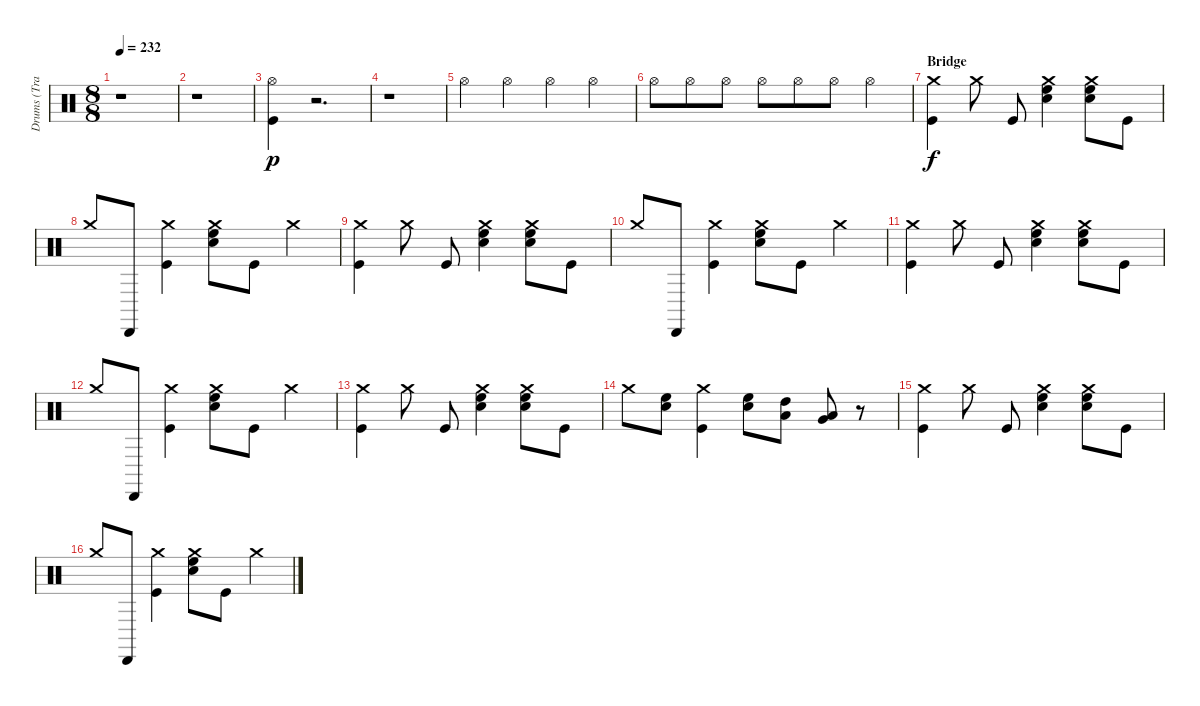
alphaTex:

\track ("Drums (Travis)" "Drums (Tra") {instrument percussion}
\staff {score}
\articulation defaults
\ts (8 8)
\tempo 232
\clef neutral
\ks c
r.1{dy p} |
r.1 |
("Hi-Hat (open)" "Kick (hit)").4 r.2{d} |
r.1 |
"Hi-Hat (open)".4 "Hi-Hat (open)".4 "Hi-Hat (open)".4 "Hi-Hat (open)".4 |
"Hi-Hat (open)".8 "Hi-Hat (open)".8 "Hi-Hat (open)".8 "Hi-Hat (open)".8 "Hi-Hat (open)".8 "Hi-Hat (open)".8 "Hi-Hat (open)".4 |
\section ("" "Bridge")
("Kick (hit)" "Crash medium (hit)").4{dy f} "Crash medium (hit)".8 "Kick (hit)".8 ("High Floor Tom (hit)" "Electric Snare (hit)" "Crash medium (hit)").4 ("Electric Snare (hit)" "High Floor Tom (hit)" "Crash medium (hit)").8 "Kick (hit)".8 |
"Crash medium (hit)".8 "Cabasa (hit)".8 ("Kick (hit)" "Crash medium (hit)").4 ("High Floor Tom (hit)" "Electric Snare (hit)" "Crash medium (hit)").8 "Kick (hit)".8 "Crash medium (hit)".4 |
("Kick (hit)" "Crash medium (hit)").4 "Crash medium (hit)".8 "Kick (hit)".8 ("High Floor Tom (hit)" "Electric Snare (hit)" "Crash medium (hit)").4 ("Electric Snare (hit)" "High Floor Tom (hit)" "Crash medium (hit)").8 "Kick (hit)".8 |
"Crash medium (hit)".8 "Cabasa (hit)".8 ("Kick (hit)" "Crash medium (hit)").4 ("High Floor Tom (hit)" "Electric Snare (hit)" "Crash medium (hit)").8 "Kick (hit)".8 "Crash medium (hit)".4 |
("Kick (hit)" "Crash medium (hit)").4 "Crash medium (hit)".8 "Kick (hit)".8 ("High Floor Tom (hit)" "Electric Snare (hit)" "Crash medium (hit)").4 ("Electric Snare (hit)" "High Floor Tom (hit)" "Crash medium (hit)").8 "Kick (hit)".8 |
"Crash medium (hit)".8 "Cabasa (hit)".8 ("Kick (hit)" "Crash medium (hit)").4 ("High Floor Tom (hit)" "Electric Snare (hit)" "Crash medium (hit)").8 "Kick (hit)".8 "Crash medium (hit)".4 |
("Kick (hit)" "Crash medium (hit)").4 "Crash medium (hit)".8 "Kick (hit)".8 ("High Floor Tom (hit)" "Electric Snare (hit)" "Crash medium (hit)").4 ("Electric Snare (hit)" "High Floor Tom (hit)" "Crash medium (hit)").8 "Kick (hit)".8 |
"Crash medium (hit)".8 ("High Floor Tom (hit)" "Electric Snare (hit)").8 ("Kick (hit)" "Crash medium (hit)").4 ("High Floor Tom (hit)" "Electric Snare (hit)").8 ("High Tom (hit)" "Low Tom (hit)").8 ("Very Low Tom (hit)" "Low Floor Tom (hit)").8 r.8 |
("Kick (hit)" "Crash medium (hit)").4 "Crash medium (hit)".8 "Kick (hit)".8 ("High Floor Tom (hit)" "Electric Snare (hit)" "Crash medium (hit)").4 ("Electric Snare (hit)" "High Floor Tom (hit)" "Crash medium (hit)").8 "Kick (hit)".8 |
"Crash medium (hit)".8 "Cabasa (hit)".8 ("Kick (hit)" "Crash medium (hit)").4 ("High Floor Tom (hit)" "Electric Snare (hit)" "Crash medium (hit)").8 "Kick (hit)".8 "Crash medium (hit)".4
